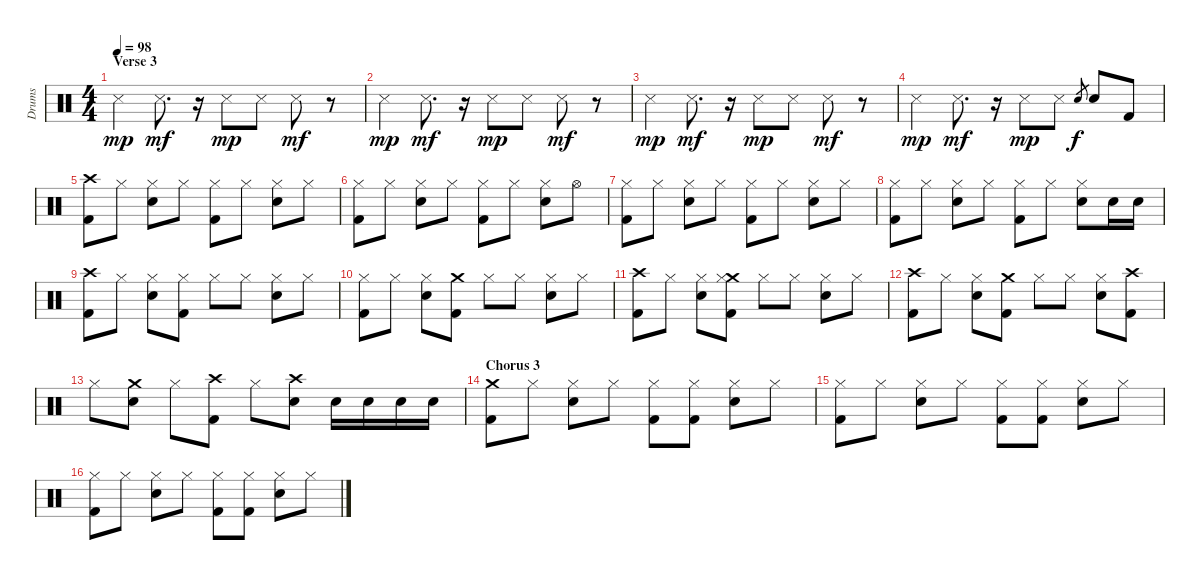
\track ("Drums" "Drums") {instrument percussion}
\staff {score}
\articulation defaults
\ts (4 4)
\section ("" "Verse 3")
\tempo 98
\clef neutral
\ks c "Snare (side stick) 3".4{dy mp} "Snare (side stick) 3".8{d dy mf}
r.16 "Snare (side stick) 3".8{dy mp} "Snare (side stick) 3".8 "Snare (side stick) 3".8{dy mf} r.8 |
"Snare (side stick) 3".4{dy mp} "Snare (side stick) 3".8{d dy mf} r.16 "Snare (side stick) 3".8{dy mp} "Snare (side stick) 3".8 "Snare (side stick) 3".8{dy mf} r.8 |
"Snare (side stick) 3".4{dy mp} "Snare (side stick) 3".8{d dy mf} r.16 "Snare (side stick) 3".8{dy mp} "Snare (side stick) 3".8 "Snare (side stick) 3".8{dy mf} r.8 |
"Snare (side stick) 3".4{dy mp} "Snare (side stick) 3".8{d dy mf} r.16 "Snare (side stick) 3".8{dy mp} "Snare (side stick) 3".8 "Snare (hit) 2".8{gr dy f} "Snare (hit) 2".8 "Kick (hit) 2".8 |
("Crash high (hit)" "Kick (hit) 2").8 "Hi-Hat (closed)".8 ("Hi-Hat (closed)" "Snare (hit) 2").8 "Hi-Hat (closed)".8 ("Hi-Hat (closed)" "Kick (hit) 2").8 "Hi-Hat (closed)".8 ("Hi-Hat (closed)" "Snare (hit) 2").8 "Hi-Hat (closed)".8 |
("Hi-Hat (closed)" "Kick (hit) 2").8 "Hi-Hat (closed)".8 ("Hi-Hat (closed)" "Snare (hit) 2").8 "Hi-Hat (closed)".8 ("Hi-Hat (closed)" "Kick (hit) 2").8 "Hi-Hat (closed)".8 ("Hi-Hat (closed)" "Snare (hit) 2").8 "Hi-Hat (open)".8 |
("Hi-Hat (closed)" "Kick (hit) 2").8 "Hi-Hat (closed)".8 ("Hi-Hat (closed)" "Snare (hit) 2").8 "Hi-Hat (closed)".8 ("Hi-Hat (closed)" "Kick (hit) 2").8 "Hi-Hat (closed)".8 ("Hi-Hat (closed)" "Snare (hit) 2").8 "Hi-Hat (closed)".8 |
("Hi-Hat (closed)" "Kick (hit) 2").8 "Hi-Hat (closed)".8 ("Hi-Hat (closed)" "Snare (hit) 2").8 "Hi-Hat (closed)".8 ("Hi-Hat (closed)" "Kick (hit) 2").8 "Hi-Hat (closed)".8 ("Hi-Hat (closed)" "Snare (hit) 2").8 "Snare (hit) 2".16 "Snare (hit) 2".16 |
("Crash high (hit)" "Kick (hit) 2").8 "Hi-Hat (closed)".8 ("Hi-Hat (closed)" "Snare (hit) 2").8 ("Hi-Hat (closed)" "Kick (hit) 2").8 "Hi-Hat (closed)".8 "Hi-Hat (closed)".8 ("Hi-Hat (closed)" "Snare (hit) 2").8 "Hi-Hat (closed)".8 |
("Hi-Hat (closed)" "Kick (hit) 2").8 "Hi-Hat (closed)".8 ("Hi-Hat (closed)" "Snare (hit) 2").8 ("Crash medium (hit)" "Kick (hit) 2").8 "Hi-Hat (closed)".8 "Hi-Hat (closed)".8 ("Hi-Hat (closed)" "Snare (hit) 2").8 "Hi-Hat (closed)".8 |
("Crash high (hit)" "Kick (hit) 2").8 "Hi-Hat (closed)".8 ("Hi-Hat (closed)" "Snare (hit) 2").8 ("Crash medium (hit)" "Hi-Hat (closed)" "Kick (hit) 2").8 "Hi-Hat (closed)".8 "Hi-Hat (closed)".8 ("Hi-Hat (closed)" "Snare (hit) 2").8 "Hi-Hat (closed)".8 |
("Crash high (hit)" "Kick (hit) 2").8 "Hi-Hat (closed)".8 ("Hi-Hat (closed)" "Snare (hit) 2").8 ("Crash medium (hit)" "Kick (hit) 2").8 "Hi-Hat (closed)".8 "Hi-Hat (closed)".8 ("Hi-Hat (closed)" "Snare (hit) 2").8 ("Crash high (hit)" "Kick (hit) 2").8 |
"Hi-Hat (closed)".8 ("Crash medium (hit)" "Snare (hit) 2").8 "Hi-Hat (closed)".8 ("Crash high (hit)" "Kick (hit) 2").8 "Hi-Hat (closed)".8 ("Crash high (hit)" "Snare (hit) 2").8 "Snare (hit) 2".16 "Snare (hit) 2".16 "Snare (hit) 2".16 "Snare (hit) 2".16 |
\section ("" "Chorus 3")
("Crash medium (hit)" "Kick (hit) 2").8 "Hi-Hat (closed)".8 ("Hi-Hat (closed)" "Snare (hit) 2").8 "Hi-Hat (closed)".8 ("Hi-Hat (closed)" "Kick (hit) 2").8 ("Hi-Hat (closed)" "Kick (hit) 2").8 ("Hi-Hat (closed)" "Snare (hit) 2").8 "Hi-Hat (closed)".8 |
("Hi-Hat (closed)" "Kick (hit) 2").8 "Hi-Hat (closed)".8 ("Hi-Hat (closed)" "Snare (hit) 2").8 "Hi-Hat (closed)".8 ("Hi-Hat (closed)" "Kick (hit) 2").8 ("Hi-Hat (closed)" "Kick (hit) 2").8 ("Hi-Hat (closed)" "Snare (hit) 2").8 "Hi-Hat (closed)".8 |
("Hi-Hat (closed)" "Kick (hit) 2").8 "Hi-Hat (closed)".8 ("Hi-Hat (closed)" "Snare (hit) 2").8 "Hi-Hat (closed)".8 ("Hi-Hat (closed)" "Kick (hit) 2").8 ("Hi-Hat (closed)" "Kick (hit) 2").8 ("Hi-Hat (closed)" "Snare (hit) 2").8 "Hi-Hat (closed)".8
